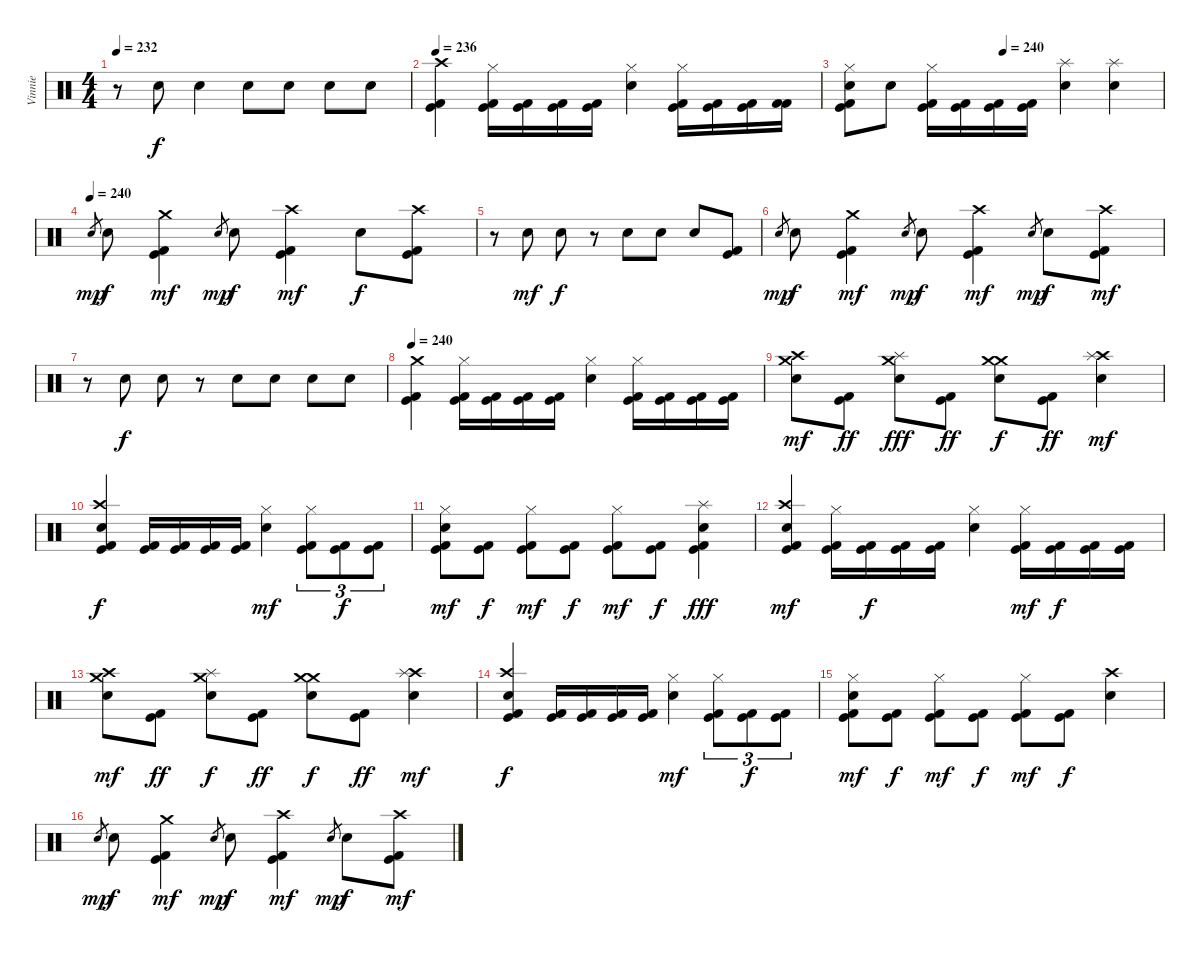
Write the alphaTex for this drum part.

\track ("Vinnie" "Vinnie") {instrument percussion}
\staff {score}
\articulation defaults
\ts (4 4)
\tempo 232
\clef neutral
\ks c
r.8{dy mf} "Electric Snare (hit)".8{dy f} "Electric Snare (hit)".4 "Electric Snare (hit)".8 "Electric Snare (hit)".8 "Electric Snare (hit)".8 "Electric Snare (hit)".8 |
\tempo 236
("Crash high (hit)" "Kick (hit)" "Kick (hit) 2").4 ("Hi-Hat (closed)" "Kick (hit)" "Kick (hit) 2").16 ("Kick (hit)" "Kick (hit) 2").16 ("Kick (hit)" "Kick (hit) 2").16 ("Kick (hit)" "Kick (hit) 2").16 ("Hi-Hat (closed)" "Electric Snare (hit)").4 ("Hi-Hat (closed)" "Kick (hit)" "Kick (hit) 2").16 ("Kick (hit)" "Kick (hit) 2").16 ("Kick (hit)" "Kick (hit) 2").16 ("Kick (hit) 2" "Kick (hit) 2").16 |
\tempo (240 0.5)
("Hi-Hat (closed)" "Electric Snare (hit)" "Kick (hit)" "Kick (hit) 2").8 "Electric Snare (hit)".8 ("Hi-Hat (closed)" "Kick (hit)" "Kick (hit) 2").16 ("Kick (hit)" "Kick (hit) 2").16 ("Kick (hit)" "Kick (hit) 2").16 ("Kick (hit)" "Kick (hit) 2").16 ("Splash (hit)" "Electric Snare (hit)").4 ("Splash (hit)" "Electric Snare (hit)").4 |
\tempo (240)
"Electric Snare (hit)".8{gr dy mp} "Electric Snare (hit)".8{dy f} ("Crash medium (hit)" "Kick (hit)" "Kick (hit) 2").4{dy mf} "Electric Snare (hit)".8{gr dy mp} "Electric Snare (hit)".8{dy f} ("Crash high (hit)" "Kick (hit)" "Kick (hit) 2").4{dy mf} "Electric Snare (hit)".8{dy f} ("Crash high (hit)" "Kick (hit)" "Kick (hit) 2").8 |
r.8 "Electric Snare (hit)".8{dy mf} "Electric Snare (hit)".8{dy f} r.8 "Electric Snare (hit)".8 "Electric Snare (hit)".8 "Electric Snare (hit)".8 ("Kick (hit)" "Kick (hit) 2").8 |
"Electric Snare (hit)".8{gr dy mp} "Electric Snare (hit)".8{dy f} ("Crash medium (hit)" "Kick (hit)" "Kick (hit) 2").4{dy mf} "Electric Snare (hit)".8{gr dy mp} "Electric Snare (hit)".8{dy f} ("Crash high (hit)" "Kick (hit)" "Kick (hit) 2").4{dy mf} "Electric Snare (hit)".8{gr dy mp} "Electric Snare (hit)".8{dy f} ("Crash high (hit)" "Kick (hit)" "Kick (hit) 2").8{dy mf} |
r.8 "Electric Snare (hit)".8{dy f} "Electric Snare (hit)".8 r.8 "Electric Snare (hit)".8 "Electric Snare (hit)".8 "Electric Snare (hit)".8 "Electric Snare (hit)".8 |
\tempo 240
("Crash medium (hit)" "Kick (hit)" "Kick (hit) 2").4 ("Hi-Hat (closed)" "Kick (hit)" "Kick (hit) 2").16 ("Kick (hit)" "Kick (hit) 2").16 ("Kick (hit)" "Kick (hit) 2").16 ("Kick (hit)" "Kick (hit) 2").16 ("Hi-Hat (closed)" "Electric Snare (hit)").4 ("Hi-Hat (closed)" "Kick (hit)" "Kick (hit) 2").16 ("Kick (hit)" "Kick (hit) 2").16 ("Kick (hit)" "Kick (hit) 2").16 ("Kick (hit)" "Kick (hit) 2").16 |
("Crash high (hit)" "Crash medium (hit)" "Electric Snare (hit)").8{dy mf} ("Kick (hit)" "Kick (hit) 2").8{dy ff} ("Splash (hit)" "Crash medium (hit)" "Electric Snare (hit)").8{dy fff} ("Kick (hit)" "Kick (hit) 2").8{dy ff} ("Crash medium (hit)" "Crash medium (hit)" "Electric Snare (hit)").8{dy f} ("Kick (hit)" "Kick (hit) 2").8{dy ff} ("Crash high (hit)" "Splash (hit)" "Electric Snare (hit)").4{dy mf} |
("Crash high (hit)" "Electric Snare (hit)" "Kick (hit)" "Kick (hit) 2").4{bd 60 dy f} ("Kick (hit)" "Kick (hit) 2").16 ("Kick (hit)" "Kick (hit) 2").16 ("Kick (hit)" "Kick (hit) 2").16 ("Kick (hit)" "Kick (hit) 2").16 ("Hi-Hat (closed)" "Electric Snare (hit)").4{dy mf} ("Hi-Hat (closed)" "Kick (hit)" "Kick (hit) 2").8{tu (3 2)} ("Kick (hit)" "Kick (hit) 2").8{tu (3 2) dy f} ("Kick (hit)" "Kick (hit) 2").8{tu (3 2)} |
("Hi-Hat (closed)" "Electric Snare (hit)" "Kick (hit)" "Kick (hit) 2").8{dy mf} ("Kick (hit)" "Kick (hit) 2").8{dy f} ("Hi-Hat (closed)" "Kick (hit)" "Kick (hit) 2").8{dy mf} ("Kick (hit)" "Kick (hit) 2").8{dy f} ("Hi-Hat (closed)" "Kick (hit)" "Kick (hit) 2").8{dy mf} ("Kick (hit)" "Kick (hit) 2").8{dy f} ("Splash (hit)" "Electric Snare (hit)" "Kick (hit)" "Kick (hit) 2").4{bd 60 dy fff} |
("Crash high (hit)" "Electric Snare (hit)" "Kick (hit)" "Kick (hit) 2").4{bd 60 dy mf} ("Hi-Hat (closed)" "Kick (hit)" "Kick (hit) 2").16 ("Kick (hit)" "Kick (hit) 2").16{dy f} ("Kick (hit)" "Kick (hit) 2").16 ("Kick (hit)" "Kick (hit) 2").16 ("Hi-Hat (closed)" "Electric Snare (hit)").4 ("Hi-Hat (closed)" "Kick (hit)" "Kick (hit) 2").16{dy mf} ("Kick (hit)" "Kick (hit) 2").16{dy f} ("Kick (hit)" "Kick (hit) 2").16 ("Kick (hit)" "Kick (hit) 2").16 |
("Crash high (hit)" "Crash medium (hit)" "Electric Snare (hit)").8{dy mf} ("Kick (hit)" "Kick (hit) 2").8{dy ff} ("Crash medium (hit)" "Splash (hit)" "Electric Snare (hit)").8{dy f} ("Kick (hit)" "Kick (hit) 2").8{dy ff} ("Crash medium (hit)" "Crash medium (hit)" "Electric Snare (hit)").8{dy f} ("Kick (hit)" "Kick (hit) 2").8{dy ff} ("Crash high (hit)" "Splash (hit)" "Electric Snare (hit)").4{dy mf} |
("Crash high (hit)" "Electric Snare (hit)" "Kick (hit)" "Kick (hit) 2").4{bd 60 dy f} ("Kick (hit)" "Kick (hit) 2").16 ("Kick (hit)" "Kick (hit) 2").16 ("Kick (hit)" "Kick (hit) 2").16 ("Kick (hit)" "Kick (hit) 2").16 ("Hi-Hat (closed)" "Electric Snare (hit)").4{dy mf} ("Hi-Hat (closed)" "Kick (hit)" "Kick (hit) 2").8{tu (3 2)} ("Kick (hit)" "Kick (hit) 2").8{tu (3 2) dy f} ("Kick (hit)" "Kick (hit) 2").8{tu (3 2)} |
("Hi-Hat (closed)" "Electric Snare (hit)" "Kick (hit)" "Kick (hit) 2").8{dy mf} ("Kick (hit)" "Kick (hit) 2").8{dy f} ("Hi-Hat (closed)" "Kick (hit)" "Kick (hit) 2").8{dy mf} ("Kick (hit)" "Kick (hit) 2").8{dy f} ("Hi-Hat (closed)" "Kick (hit)" "Kick (hit) 2").8{dy mf} ("Kick (hit)" "Kick (hit) 2").8{dy f} ("Crash high (hit)" "Electric Snare (hit)").4 |
"Electric Snare (hit)".8{gr dy mp} "Electric Snare (hit)".8{dy f} ("Crash medium (hit)" "Kick (hit)" "Kick (hit) 2").4{dy mf} "Electric Snare (hit)".8{gr dy mp} "Electric Snare (hit)".8{dy f} ("Crash high (hit)" "Kick (hit)" "Kick (hit) 2").4{dy mf} "Electric Snare (hit)".8{gr dy mp} "Electric Snare (hit)".8{dy f} ("Crash high (hit)" "Kick (hit)" "Kick (hit) 2").8{dy mf}
